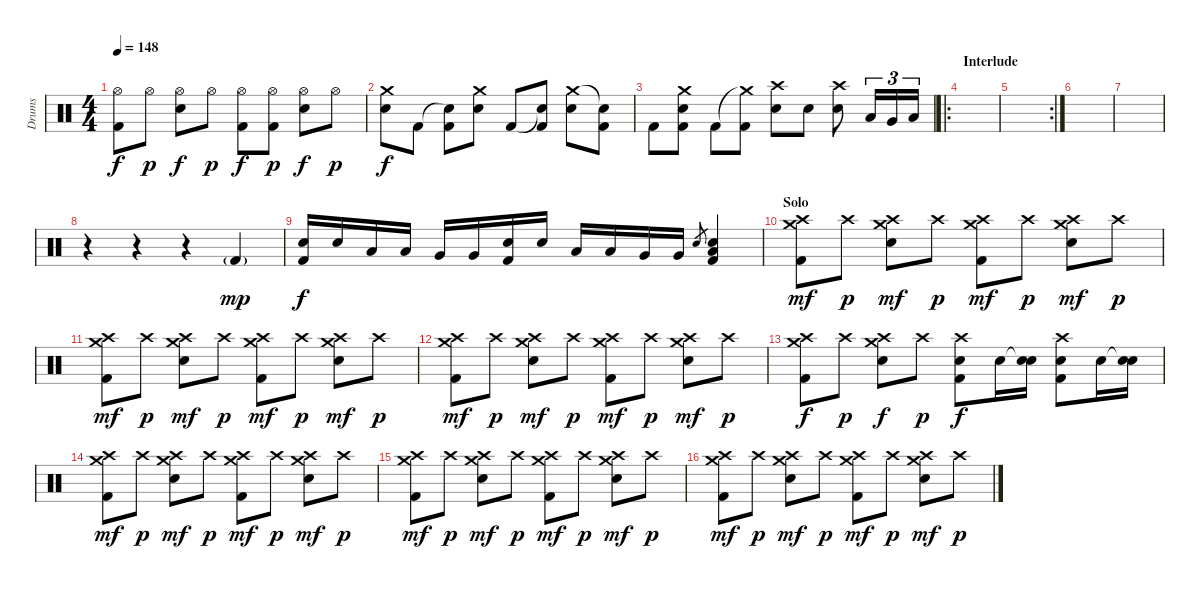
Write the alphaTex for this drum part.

\track ("Drums" "Drums") {instrument percussion}
\staff {score}
\articulation defaults
\ts (4 4)
\tempo 148
\clef neutral
\ks c
("Hi-Hat (open)" "Kick (hit) 2").8{dy f} "Hi-Hat (open)".8{dy p} ("Hi-Hat (open)" "Snare (hit) 2").8{dy f} "Hi-Hat (open)".8{dy p} ("Hi-Hat (open)" "Kick (hit) 2").8{dy f} ("Hi-Hat (open)" "Kick (hit) 2").8{dy p} ("Hi-Hat (open)" "Snare (hit) 2").8{dy f} "Hi-Hat (open)".8{dy p} |
("Crash medium (hit)" "Snare (hit) 2").8{dy f} "Kick (hit) 2".8 ("Snare (hit)"{t} "Kick (hit) 2").8 ("Crash medium (hit)" "Snare (hit) 2").8 "Kick (hit) 2".8 ("Snare (hit)"{t} "Kick (hit) 2").8 ("Crash medium (hit)" "Snare (hit) 2").8 ("Snare (hit)"{t} "Kick (hit) 2").8 |
"Kick (hit) 2".8 ("Crash medium (hit)" "Snare (hit) 2" "Kick (hit) 2").8 "Kick (hit) 2".8 ("Crash medium (hit)"{t} "Kick (hit) 2").8 ("Crash high (hit)" "Snare (hit) 2").8 "Snare (hit) 2".8 ("Crash high (hit)" "Snare (hit) 2").8 "Low Tom (hit)".16{tu (3 2)} "Very Low Tom (hit)".16{tu (3 2)} "Low Floor Tom (hit)".16{tu (3 2)} |
\ro
\section ("" "Interlude")
|
\rc 2
|
|
|
r.4 r.4 r.4 "Kick (hit) 2"{g}.4{dy mp} |
\section ("" "")
("Snare (hit) 2" "Kick (hit) 2").16{dy f} "Snare (hit) 2".16 "Low Tom (hit)".16 "Low Tom (hit)".16 "Very Low Tom (hit)".16 "Very Low Tom (hit)".16 ("Snare (hit) 2" "Kick (hit) 2").16 "Snare (hit) 2".16 "Low Tom (hit)".16 "Low Tom (hit)".16 "Very Low Tom (hit)".16 "Very Low Tom (hit)".16 "Snare (hit) 2"{sl}.8{gr} ("Low Floor Tom (hit)" "Snare (hit) 2" "Kick (hit) 2").4 |
\section ("" "Solo")
("Crash high (hit)" "Crash medium (hit)" "Kick (hit) 2").8{dy mf} "Crash high (hit)".8{dy p} ("Crash high (hit)" "Crash medium (hit)" "Snare (hit) 2").8{dy mf} "Crash high (hit)".8{dy p} ("Crash high (hit)" "Crash medium (hit)" "Kick (hit) 2").8{dy mf} "Crash high (hit)".8{dy p} ("Crash high (hit)" "Crash medium (hit)" "Snare (hit) 2").8{dy mf} "Crash high (hit)".8{dy p} |
("Crash high (hit)" "Crash medium (hit)" "Kick (hit) 2").8{dy mf} "Crash high (hit)".8{dy p} ("Crash high (hit)" "Crash medium (hit)" "Snare (hit) 2").8{dy mf} "Crash high (hit)".8{dy p} ("Crash high (hit)" "Crash medium (hit)" "Kick (hit) 2").8{dy mf} "Crash high (hit)".8{dy p} ("Crash high (hit)" "Crash medium (hit)" "Snare (hit) 2").8{dy mf} "Crash high (hit)".8{dy p} |
("Crash high (hit)" "Crash medium (hit)" "Kick (hit) 2").8{dy mf} "Crash high (hit)".8{dy p} ("Crash high (hit)" "Crash medium (hit)" "Snare (hit) 2").8{dy mf} "Crash high (hit)".8{dy p} ("Crash high (hit)" "Crash medium (hit)" "Kick (hit) 2").8{dy mf} "Crash high (hit)".8{dy p} ("Crash high (hit)" "Crash medium (hit)" "Snare (hit) 2").8{dy mf} "Crash high (hit)".8{dy p} |
("Crash high (hit)" "Crash medium (hit)" "Kick (hit) 2").8{dy f} "Crash high (hit)".8{dy p} ("Crash high (hit)" "Crash medium (hit)" "Snare (hit) 2").8{dy f} "Crash high (hit)".8{dy p} ("Crash high (hit)" "Snare (hit) 2" "Kick (hit) 2").8{dy f} "Snare (hit) 2".16 ("Snare (hit)"{t} "Snare (hit) 2").16 ("Crash high (hit)" "Snare (hit) 2" "Kick (hit) 2").8 "Snare (hit) 2".16 ("Snare (hit)"{t} "Snare (hit) 2").16 |
("Crash high (hit)" "Crash medium (hit)" "Kick (hit) 2").8{dy mf} "Crash high (hit)".8{dy p} ("Crash high (hit)" "Crash medium (hit)" "Snare (hit) 2").8{dy mf} "Crash high (hit)".8{dy p} ("Crash high (hit)" "Crash medium (hit)" "Kick (hit) 2").8{dy mf} "Crash high (hit)".8{dy p} ("Crash high (hit)" "Crash medium (hit)" "Snare (hit) 2").8{dy mf} "Crash high (hit)".8{dy p} |
("Crash high (hit)" "Crash medium (hit)" "Kick (hit) 2").8{dy mf} "Crash high (hit)".8{dy p} ("Crash high (hit)" "Crash medium (hit)" "Snare (hit) 2").8{dy mf} "Crash high (hit)".8{dy p} ("Crash high (hit)" "Crash medium (hit)" "Kick (hit) 2").8{dy mf} "Crash high (hit)".8{dy p} ("Crash high (hit)" "Crash medium (hit)" "Snare (hit) 2").8{dy mf} "Crash high (hit)".8{dy p} |
("Crash high (hit)" "Crash medium (hit)" "Kick (hit) 2").8{dy mf} "Crash high (hit)".8{dy p} ("Crash high (hit)" "Crash medium (hit)" "Snare (hit) 2").8{dy mf} "Crash high (hit)".8{dy p} ("Crash high (hit)" "Crash medium (hit)" "Kick (hit) 2").8{dy mf} "Crash high (hit)".8{dy p} ("Crash high (hit)" "Crash medium (hit)" "Snare (hit) 2").8{dy mf} "Crash high (hit)".8{dy p}
